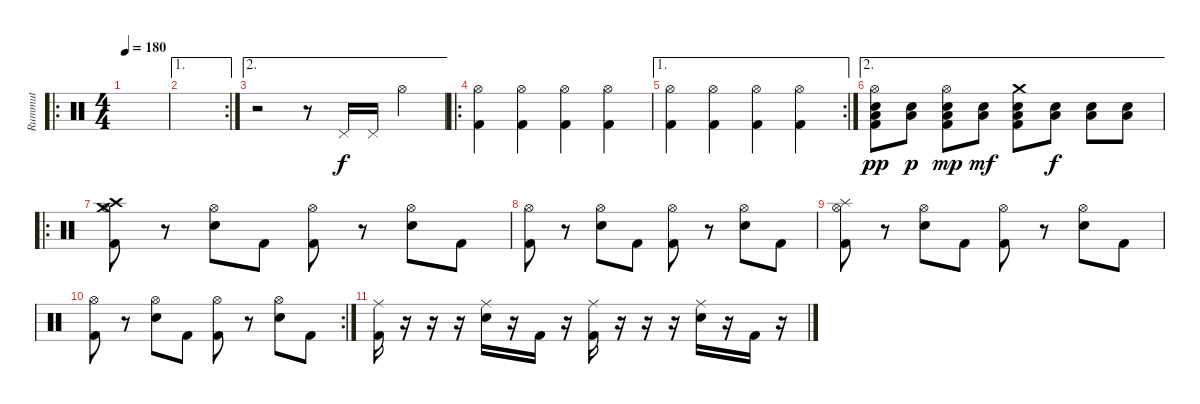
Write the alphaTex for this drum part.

\track ("Rummut" "Rummut") {instrument percussion}
\staff {score}
\articulation defaults
\ro
\ts (4 4)
\tempo 180
\clef neutral
\ks c
|
\ae 1
\rc 2
|
\ae 2
r.2 r.8 "Pedal Hi-Hat (hit)".16 "Pedal Hi-Hat (hit)".16 "Hi-Hat (open)".4 |
\ro
("Kick (hit) 2" "Hi-Hat (open)").4 ("Kick (hit) 2" "Hi-Hat (open)").4 ("Kick (hit) 2" "Hi-Hat (open)").4 ("Kick (hit) 2" "Hi-Hat (open)").4 |
\ae 1
\rc 2
("Kick (hit) 2" "Hi-Hat (open)").4 ("Kick (hit) 2" "Hi-Hat (open)").4 ("Kick (hit) 2" "Hi-Hat (open)").4 ("Kick (hit) 2" "Hi-Hat (open)").4 |
\ae 2
("Kick (hit) 2" "Low Tom (hit)" "Snare (hit) 2" "Hi-Hat (open)").8{dy pp} ("Low Tom (hit)" "Snare (hit) 2").8{dy p} ("Kick (hit) 2" "Low Tom (hit)" "Snare (hit) 2" "Hi-Hat (open)").8{dy mp} ("Low Tom (hit)" "Snare (hit) 2").8{dy mf} ("Kick (hit) 2" "Low Tom (hit)" "Snare (hit) 2" "Crash medium (hit)").8 ("Low Tom (hit)" "Snare (hit) 2").8{dy f} ("Low Tom (hit)" "Snare (hit) 2").8 ("Low Tom (hit)" "Snare (hit) 2").8 |
\ro
("Kick (hit) 2" "Hi-Hat (open)" "Crash medium (hit)" "Crash high (hit)").8 r.8 ("Snare (hit) 2" "Hi-Hat (open)").8 "Kick (hit) 2".8 ("Kick (hit) 2" "Hi-Hat (open)").8 r.8 ("Snare (hit) 2" "Hi-Hat (open)").8 "Kick (hit) 2".8 |
("Kick (hit) 2" "Hi-Hat (open)").8 r.8 ("Snare (hit) 2" "Hi-Hat (open)").8 "Kick (hit) 2".8 ("Kick (hit) 2" "Hi-Hat (open)").8 r.8 ("Snare (hit) 2" "Hi-Hat (open)").8 "Kick (hit) 2".8 |
("Kick (hit) 2" "Hi-Hat (open)" "Splash (hit)").8 r.8 ("Snare (hit) 2" "Hi-Hat (open)").8 "Kick (hit) 2".8 ("Kick (hit) 2" "Hi-Hat (open)").8 r.8 ("Snare (hit) 2" "Hi-Hat (open)").8 "Kick (hit) 2".8 |
\rc 2
("Kick (hit) 2" "Hi-Hat (open)").8 r.8 ("Snare (hit) 2" "Hi-Hat (open)").8 "Kick (hit) 2".8 ("Kick (hit) 2" "Hi-Hat (open)").8 r.8 ("Snare (hit) 2" "Hi-Hat (open)").8 "Kick (hit) 2".8 |
("Kick (hit) 2" "Ride (middle)").16 r.16 r.16 r.16 ("Snare (hit) 2" "Ride (middle)").16 r.16 "Kick (hit) 2".16 r.16 ("Kick (hit) 2" "Ride (middle)").16 r.16 r.16 r.16 ("Snare (hit) 2" "Ride (middle)").16 r.16 "Kick (hit) 2".16 r.16
